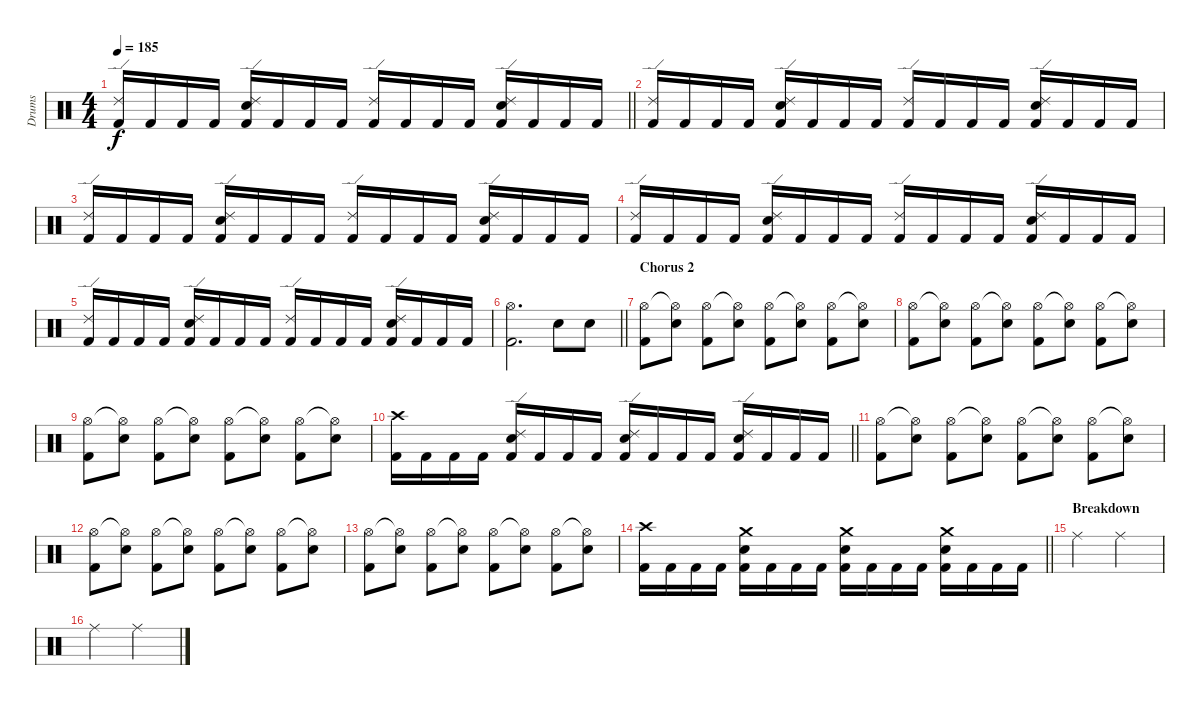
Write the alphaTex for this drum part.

\track ("Drums" "Drums") {instrument percussion}
\staff {score}
\articulation defaults
\ts (4 4)
\tempo 185
\clef neutral
\barLineRight lightlight
\ks c
("Ride (edge) 2" "Kick (hit) 2").16{dy f} "Kick (hit) 2".16 "Kick (hit) 2".16 "Kick (hit) 2".16 ("Ride (edge) 2" "Electric Snare (hit)" "Kick (hit) 2").16 "Kick (hit) 2".16 "Kick (hit) 2".16 "Kick (hit) 2".16 ("Ride (edge) 2" "Kick (hit) 2").16 "Kick (hit) 2".16 "Kick (hit) 2".16 "Kick (hit) 2".16 ("Ride (edge) 2" "Electric Snare (hit)" "Kick (hit) 2").16 "Kick (hit) 2".16 "Kick (hit) 2".16 "Kick (hit) 2".16 |
("Ride (edge) 2" "Kick (hit) 2").16 "Kick (hit) 2".16 "Kick (hit) 2".16 "Kick (hit) 2".16 ("Ride (edge) 2" "Electric Snare (hit)" "Kick (hit) 2").16 "Kick (hit) 2".16 "Kick (hit) 2".16 "Kick (hit) 2".16 ("Ride (edge) 2" "Kick (hit) 2").16 "Kick (hit) 2".16 "Kick (hit) 2".16 "Kick (hit) 2".16 ("Ride (edge) 2" "Electric Snare (hit)" "Kick (hit) 2").16 "Kick (hit) 2".16 "Kick (hit) 2".16 "Kick (hit) 2".16 |
("Ride (edge) 2" "Kick (hit) 2").16 "Kick (hit) 2".16 "Kick (hit) 2".16 "Kick (hit) 2".16 ("Ride (edge) 2" "Electric Snare (hit)" "Kick (hit) 2").16 "Kick (hit) 2".16 "Kick (hit) 2".16 "Kick (hit) 2".16 ("Ride (edge) 2" "Kick (hit) 2").16 "Kick (hit) 2".16 "Kick (hit) 2".16 "Kick (hit) 2".16 ("Ride (edge) 2" "Electric Snare (hit)" "Kick (hit) 2").16 "Kick (hit) 2".16 "Kick (hit) 2".16 "Kick (hit) 2".16 |
("Ride (edge) 2" "Kick (hit) 2").16 "Kick (hit) 2".16 "Kick (hit) 2".16 "Kick (hit) 2".16 ("Ride (edge) 2" "Electric Snare (hit)" "Kick (hit) 2").16 "Kick (hit) 2".16 "Kick (hit) 2".16 "Kick (hit) 2".16 ("Ride (edge) 2" "Kick (hit) 2").16 "Kick (hit) 2".16 "Kick (hit) 2".16 "Kick (hit) 2".16 ("Ride (edge) 2" "Electric Snare (hit)" "Kick (hit) 2").16 "Kick (hit) 2".16 "Kick (hit) 2".16 "Kick (hit) 2".16 |
("Ride (edge) 2" "Kick (hit) 2").16 "Kick (hit) 2".16 "Kick (hit) 2".16 "Kick (hit) 2".16 ("Ride (edge) 2" "Electric Snare (hit)" "Kick (hit) 2").16 "Kick (hit) 2".16 "Kick (hit) 2".16 "Kick (hit) 2".16 ("Ride (edge) 2" "Kick (hit) 2").16 "Kick (hit) 2".16 "Kick (hit) 2".16 "Kick (hit) 2".16 ("Ride (edge) 2" "Electric Snare (hit)" "Kick (hit) 2").16 "Kick (hit) 2".16 "Kick (hit) 2".16 "Kick (hit) 2".16 |
\barLineRight lightlight
("Hi-Hat (open)" "Kick (hit) 2").2{d} "Electric Snare (hit)".8 "Electric Snare (hit)".8 |
\section ("" "Chorus 2")
("Hi-Hat (open)" "Kick (hit) 2").8 ("Hi-Hat (open)"{t} "Electric Snare (hit)").8 ("Hi-Hat (open)" "Kick (hit) 2").8 ("Hi-Hat (open)"{t} "Electric Snare (hit)").8 ("Hi-Hat (open)" "Kick (hit) 2").8 ("Hi-Hat (open)"{t} "Electric Snare (hit)").8 ("Hi-Hat (open)" "Kick (hit) 2").8 ("Hi-Hat (open)"{t} "Electric Snare (hit)").8 |
("Hi-Hat (open)" "Kick (hit) 2").8 ("Hi-Hat (open)"{t} "Electric Snare (hit)").8 ("Hi-Hat (open)" "Kick (hit) 2").8 ("Hi-Hat (open)"{t} "Electric Snare (hit)").8 ("Hi-Hat (open)" "Kick (hit) 2").8 ("Hi-Hat (open)"{t} "Electric Snare (hit)").8 ("Hi-Hat (open)" "Kick (hit) 2").8 ("Hi-Hat (open)"{t} "Electric Snare (hit)").8 |
("Hi-Hat (open)" "Kick (hit) 2").8 ("Hi-Hat (open)"{t} "Electric Snare (hit)").8 ("Hi-Hat (open)" "Kick (hit) 2").8 ("Hi-Hat (open)"{t} "Electric Snare (hit)").8 ("Hi-Hat (open)" "Kick (hit) 2").8 ("Hi-Hat (open)"{t} "Electric Snare (hit)").8 ("Hi-Hat (open)" "Kick (hit) 2").8 ("Hi-Hat (open)"{t} "Electric Snare (hit)").8 |
\barLineRight lightlight
("Crash high (hit)" "Kick (hit) 2").16 "Kick (hit) 2".16 "Kick (hit) 2".16 "Kick (hit) 2".16 ("Ride (edge) 2" "Electric Snare (hit)" "Kick (hit) 2").16 "Kick (hit) 2".16 "Kick (hit) 2".16 "Kick (hit) 2".16 ("Ride (edge) 2" "Electric Snare (hit)" "Kick (hit) 2").16 "Kick (hit) 2".16 "Kick (hit) 2".16 "Kick (hit) 2".16 ("Ride (edge) 2" "Electric Snare (hit)" "Kick (hit) 2").16 "Kick (hit) 2".16 "Kick (hit) 2".16 "Kick (hit) 2".16 |
("Hi-Hat (open)" "Kick (hit) 2").8 ("Hi-Hat (open)"{t} "Electric Snare (hit)").8 ("Hi-Hat (open)" "Kick (hit) 2").8 ("Hi-Hat (open)"{t} "Electric Snare (hit)").8 ("Hi-Hat (open)" "Kick (hit) 2").8 ("Hi-Hat (open)"{t} "Electric Snare (hit)").8 ("Hi-Hat (open)" "Kick (hit) 2").8 ("Hi-Hat (open)"{t} "Electric Snare (hit)").8 |
("Hi-Hat (open)" "Kick (hit) 2").8 ("Hi-Hat (open)"{t} "Electric Snare (hit)").8 ("Hi-Hat (open)" "Kick (hit) 2").8 ("Hi-Hat (open)"{t} "Electric Snare (hit)").8 ("Hi-Hat (open)" "Kick (hit) 2").8 ("Hi-Hat (open)"{t} "Electric Snare (hit)").8 ("Hi-Hat (open)" "Kick (hit) 2").8 ("Hi-Hat (open)"{t} "Electric Snare (hit)").8 |
("Hi-Hat (open)" "Kick (hit) 2").8 ("Hi-Hat (open)"{t} "Electric Snare (hit)").8 ("Hi-Hat (open)" "Kick (hit) 2").8 ("Hi-Hat (open)"{t} "Electric Snare (hit)").8 ("Hi-Hat (open)" "Kick (hit) 2").8 ("Hi-Hat (open)"{t} "Electric Snare (hit)").8 ("Hi-Hat (open)" "Kick (hit) 2").8 ("Hi-Hat (open)"{t} "Electric Snare (hit)").8 |
\barLineRight lightlight
("Crash high (hit)" "Kick (hit) 2").16 "Kick (hit) 2".16 "Kick (hit) 2".16 "Kick (hit) 2".16 ("Crash medium (hit)" "Electric Snare (hit)" "Kick (hit) 2").16 "Kick (hit) 2".16 "Kick (hit) 2".16 "Kick (hit) 2".16 ("Crash medium (hit)" "Electric Snare (hit)" "Kick (hit) 2").16 "Kick (hit) 2".16 "Kick (hit) 2".16 "Kick (hit) 2".16 ("Crash medium (hit)" "Electric Snare (hit)" "Kick (hit) 2").16 "Kick (hit) 2".16 "Kick (hit) 2".16 "Kick (hit) 2".16 |
\section ("" "Breakdown")
"Ride (middle)".2 "Ride (middle)".2 |
"Ride (middle)".2 "Ride (middle)".2
